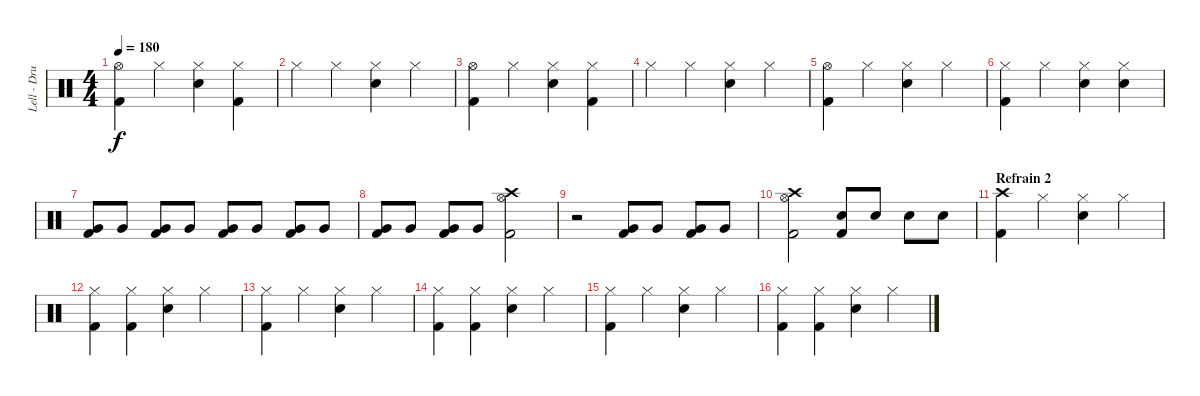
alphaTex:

\track ("Lell - Drums" "Lell - Dru") {instrument percussion}
\staff {score}
\articulation defaults
\ts (4 4)
\tempo 180
\clef neutral
\ks c
("Hi-Hat (open)" "Kick (hit) 2").4{dy f} "Hi-Hat (closed)".4 ("Hi-Hat (closed)" "Snare (hit) 2").4 ("Hi-Hat (closed)" "Kick (hit) 2").4 |
"Hi-Hat (closed)".4 "Hi-Hat (closed)".4 ("Hi-Hat (closed)" "Snare (hit) 2").4 "Hi-Hat (closed)".4 |
("Hi-Hat (open)" "Kick (hit) 2").4 "Hi-Hat (closed)".4 ("Hi-Hat (closed)" "Snare (hit) 2").4 ("Hi-Hat (closed)" "Kick (hit) 2").4 |
"Hi-Hat (closed)".4 "Hi-Hat (closed)".4 ("Hi-Hat (closed)" "Snare (hit) 2").4 "Hi-Hat (closed)".4 |
("Hi-Hat (open)" "Kick (hit) 2").4 "Hi-Hat (closed)".4 ("Hi-Hat (closed)" "Snare (hit) 2").4 "Hi-Hat (closed)".4 |
("Hi-Hat (closed)" "Kick (hit) 2").4 "Hi-Hat (closed)".4 ("Hi-Hat (closed)" "Snare (hit) 2").4 ("Hi-Hat (closed)" "Snare (hit) 2").4 |
("Very Low Tom (hit)" "Kick (hit) 2").8 "Very Low Tom (hit)".8 ("Very Low Tom (hit)" "Kick (hit) 2").8 "Very Low Tom (hit)".8 ("Very Low Tom (hit)" "Kick (hit) 2").8 "Very Low Tom (hit)".8 ("Very Low Tom (hit)" "Kick (hit) 2").8 "Very Low Tom (hit)".8 |
("Very Low Tom (hit)" "Kick (hit) 2").8 "Very Low Tom (hit)".8 ("Very Low Tom (hit)" "Kick (hit) 2").8 "Very Low Tom (hit)".8 ("Crash high (hit)" "Hi-Hat (open)" "Kick (hit) 2").2 |
r.2 ("Very Low Tom (hit)" "Kick (hit) 2").8 "Very Low Tom (hit)".8 ("Very Low Tom (hit)" "Kick (hit) 2").8 "Very Low Tom (hit)".8 |
("Crash high (hit)" "Hi-Hat (open)" "Kick (hit) 2").2 ("Snare (hit) 2" "Kick (hit) 2").8 "Snare (hit) 2".8 "Snare (hit) 2".8 "Snare (hit) 2".8 |
\section ("" "Refrain 2")
("Crash high (hit)" "Kick (hit) 2").4 "Hi-Hat (closed)".4 ("Hi-Hat (closed)" "Snare (hit) 2").4 "Hi-Hat (closed)".4 |
("Hi-Hat (closed)" "Kick (hit) 2").4 ("Hi-Hat (closed)" "Kick (hit) 2").4 ("Hi-Hat (closed)" "Snare (hit) 2").4 "Hi-Hat (closed)".4 |
("Hi-Hat (closed)" "Kick (hit) 2").4 "Hi-Hat (closed)".4 ("Hi-Hat (closed)" "Snare (hit) 2").4 "Hi-Hat (closed)".4 |
("Hi-Hat (closed)" "Kick (hit) 2").4 ("Hi-Hat (closed)" "Kick (hit) 2").4 ("Hi-Hat (closed)" "Snare (hit) 2").4 "Hi-Hat (closed)".4 |
("Hi-Hat (closed)" "Kick (hit) 2").4 "Hi-Hat (closed)".4 ("Hi-Hat (closed)" "Snare (hit) 2").4 "Hi-Hat (closed)".4 |
("Hi-Hat (closed)" "Kick (hit) 2").4 ("Hi-Hat (closed)" "Kick (hit) 2").4 ("Hi-Hat (closed)" "Snare (hit) 2").4 "Hi-Hat (closed)".4
